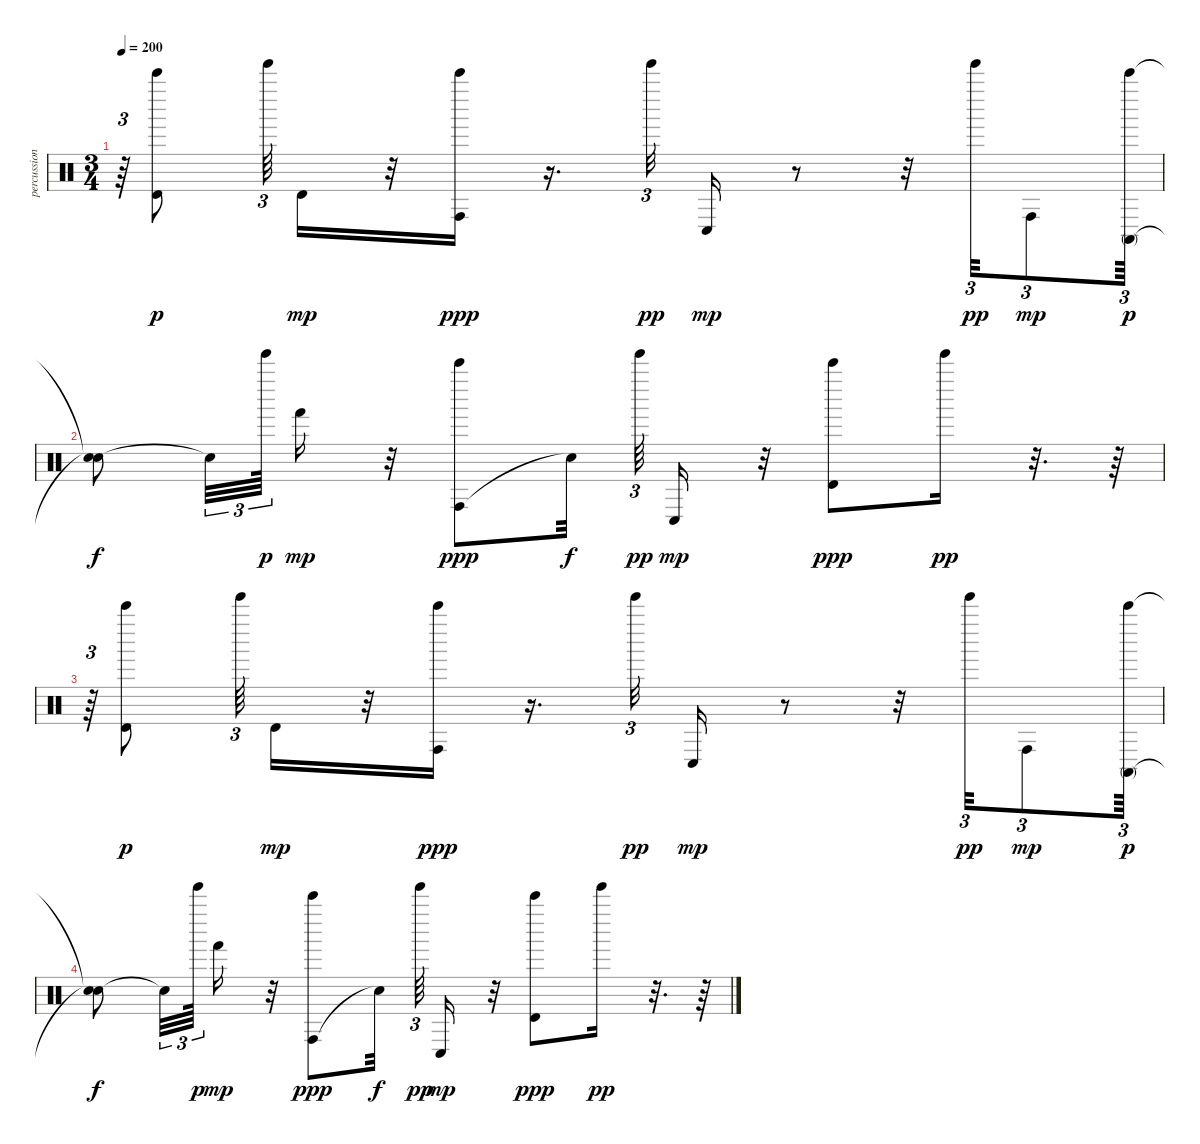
\track ("percussion" "percussion") {instrument percussion}
\staff {score}
\articulation defaults
\ts (3 4)
\tempo 200
\clef neutral
\ks c
r.64{tu (3 2) dy mp} ("Timbale high (hit)" "Bell Tree (hit)").8{dy p} "Tinkle Bell (hit)".64{tu (3 2)} "Timbale high (hit)".16{dy mp} r.32 ("Conga high (hit)" "Bell Tree (hit)").16{dy ppp} r.16{d} "Tinkle Bell (hit)".32{tu (3 2) dy pp} "Conga low (hit)".16{dy mp} r.8 r.32 "Tinkle Bell (hit)".32{tu (3 2) dy pp} "Conga high (hit)".8{tu (3 2) dy mp} ("Conga high (mute)" "Bell Tree (hit)").64{tu (3 2) dy p} |
("Snare (hit)"{t} "Snare (hit)"{t}).8{dy f} "Snare (hit)"{t}.32{tu (3 2)} "Tinkle Bell (hit)".64{tu (3 2) dy p} "Hand (hit)".16{dy mp} r.32 ("Conga high (hit)" "Bell Tree (hit)").8{dy ppp} "Snare (hit)"{t}.32{dy f} "Tinkle Bell (hit)".64{tu (3 2) dy pp} "Conga low (hit)".16{dy mp} r.32 ("Timbale high (hit)" "Bell Tree (hit)").8{dy ppp} "Tinkle Bell (hit)".16{dy pp} r.32{d} r.64 |
r.64{tu (3 2)} ("Timbale high (hit)" "Bell Tree (hit)").8{dy p} "Tinkle Bell (hit)".64{tu (3 2)} "Timbale high (hit)".16{dy mp} r.32 ("Conga high (hit)" "Bell Tree (hit)").16{dy ppp} r.16{d} "Tinkle Bell (hit)".32{tu (3 2) dy pp} "Conga low (hit)".16{dy mp} r.8 r.32 "Tinkle Bell (hit)".32{tu (3 2) dy pp} "Conga high (hit)".8{tu (3 2) dy mp} ("Conga high (mute)" "Bell Tree (hit)").64{tu (3 2) dy p} |
("Snare (hit)"{t} "Snare (hit)"{t}).8{dy f} "Snare (hit)"{t}.32{tu (3 2)} "Tinkle Bell (hit)".64{tu (3 2) dy p} "Hand (hit)".16{dy mp} r.32 ("Conga high (hit)" "Bell Tree (hit)").8{dy ppp} "Snare (hit)"{t}.32{dy f} "Tinkle Bell (hit)".64{tu (3 2) dy pp} "Conga low (hit)".16{dy mp} r.32 ("Timbale high (hit)" "Bell Tree (hit)").8{dy ppp} "Tinkle Bell (hit)".16{dy pp} r.32{d} r.64
